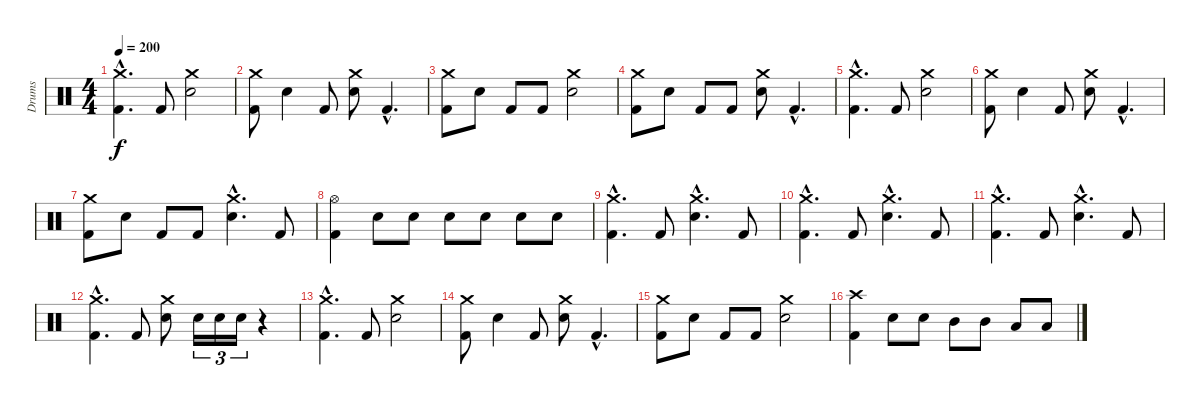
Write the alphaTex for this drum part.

\track ("Drums" "Drums") {instrument percussion}
\staff {score}
\articulation defaults
\ts (4 4)
\tempo 200
\clef neutral
\ks c
("Crash medium (hit)"{hac} "Kick (hit) 2"{hac}).4{d dy f} "Kick (hit) 2".8 ("Crash medium (hit)" "Electric Snare (hit)").2 |
("Crash medium (hit)" "Kick (hit) 2").8 "Electric Snare (hit)".4 "Kick (hit) 2".8 ("Crash medium (hit)" "Electric Snare (hit)").8 "Kick (hit) 2"{hac}.4{d} |
("Crash medium (hit)" "Kick (hit) 2").8 "Electric Snare (hit)".8 "Kick (hit) 2".8 "Kick (hit) 2".8 ("Crash medium (hit)" "Electric Snare (hit)").2 |
("Crash medium (hit)" "Kick (hit) 2").8 "Electric Snare (hit)".8 "Kick (hit) 2".8 "Kick (hit) 2".8 ("Crash medium (hit)" "Electric Snare (hit)").8 "Kick (hit) 2"{hac}.4{d} |
("Crash medium (hit)"{hac} "Kick (hit) 2"{hac}).4{d} "Kick (hit) 2".8 ("Crash medium (hit)" "Electric Snare (hit)").2 |
("Crash medium (hit)" "Kick (hit) 2").8 "Electric Snare (hit)".4 "Kick (hit) 2".8 ("Crash medium (hit)" "Electric Snare (hit)").8 "Kick (hit) 2"{hac}.4{d} |
("Crash medium (hit)" "Kick (hit) 2").8 "Electric Snare (hit)".8 "Kick (hit) 2".8 "Kick (hit) 2".8 ("Crash medium (hit)"{hac} "Electric Snare (hit)"{hac}).4{d} "Kick (hit) 2".8 |
("Hi-Hat (open)" "Kick (hit) 2").4 "Electric Snare (hit)".8 "Electric Snare (hit)".8 "Electric Snare (hit)".8 "Electric Snare (hit)".8 "Electric Snare (hit)".8 "Electric Snare (hit)".8 |
("Crash medium (hit)"{hac} "Kick (hit) 2"{hac}).4{d} "Kick (hit) 2".8 ("Crash medium (hit)"{hac} "Electric Snare (hit)"{hac}).4{d} "Kick (hit) 2".8 |
("Crash medium (hit)"{hac} "Kick (hit) 2"{hac}).4{d} "Kick (hit) 2".8 ("Crash medium (hit)"{hac} "Electric Snare (hit)"{hac}).4{d} "Kick (hit) 2".8 |
("Crash medium (hit)"{hac} "Kick (hit) 2"{hac}).4{d} "Kick (hit) 2".8 ("Crash medium (hit)"{hac} "Electric Snare (hit)"{hac}).4{d} "Kick (hit) 2".8 |
("Crash medium (hit)"{hac} "Kick (hit) 2"{hac}).4{d} "Kick (hit) 2".8 ("Crash medium (hit)" "Electric Snare (hit)").8 "Electric Snare (hit)".16{tu (3 2)} "Electric Snare (hit)".16{tu (3 2)} "Electric Snare (hit)".16{tu (3 2)} r.4 |
("Crash medium (hit)"{hac} "Kick (hit) 2"{hac}).4{d} "Kick (hit) 2".8 ("Crash medium (hit)" "Electric Snare (hit)").2 |
("Crash medium (hit)" "Kick (hit) 2").8 "Electric Snare (hit)".4 "Kick (hit) 2".8 ("Crash medium (hit)" "Electric Snare (hit)").8 "Kick (hit) 2"{hac}.4{d} |
("Crash medium (hit)" "Kick (hit) 2").8 "Electric Snare (hit)".8 "Kick (hit) 2".8 "Kick (hit) 2".8 ("Crash medium (hit)" "Electric Snare (hit)").2 |
("Crash high (hit)" "Kick (hit) 2").4 "Electric Snare (hit)".8 "Electric Snare (hit)".8 "Mid Tom (hit)".8 "Mid Tom (hit)".8 "Low Tom (hit)".8 "Low Tom (hit)".8
